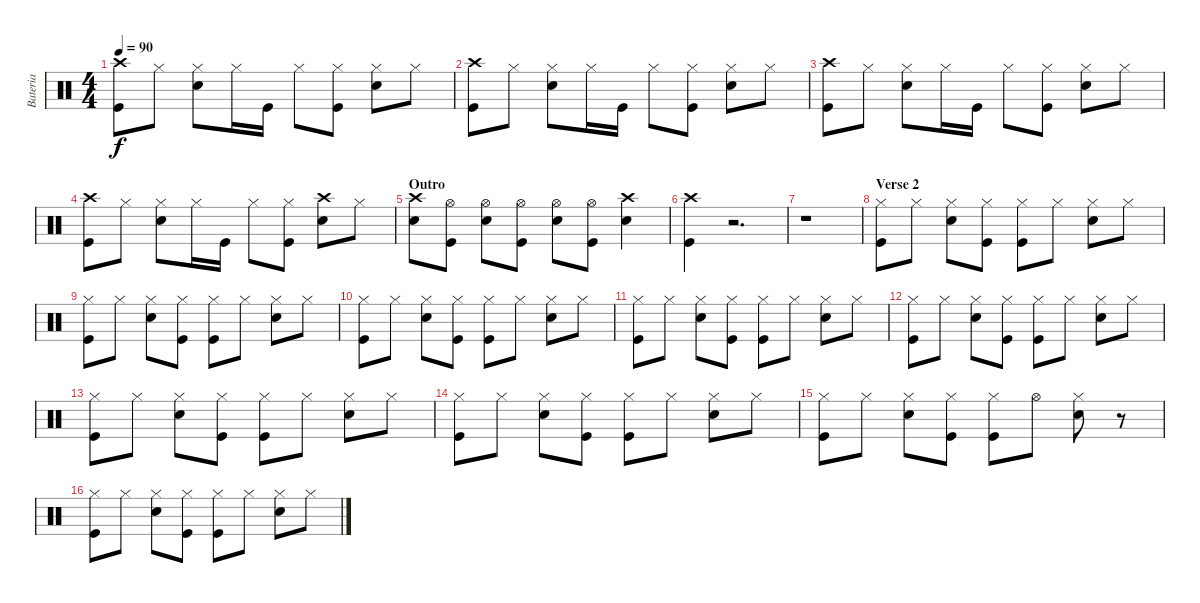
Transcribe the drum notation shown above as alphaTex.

\track ("Bateria" "Bateria") {instrument percussion}
\staff {score}
\articulation defaults
\ts (4 4)
\tempo 90
\clef neutral
\ks c
("Crash high (hit)" "Kick (hit)").8{dy f} "Hi-Hat (closed)".8 ("Hi-Hat (closed)" "Snare (hit) 2").8 "Hi-Hat (closed)".16 "Kick (hit)".16 "Hi-Hat (closed)".8 ("Hi-Hat (closed)" "Kick (hit)").8 ("Hi-Hat (closed)" "Snare (hit) 2").8 "Hi-Hat (closed)".8 |
("Crash high (hit)" "Kick (hit)").8 "Hi-Hat (closed)".8 ("Hi-Hat (closed)" "Snare (hit) 2").8 "Hi-Hat (closed)".16 "Kick (hit)".16 "Hi-Hat (closed)".8 ("Hi-Hat (closed)" "Kick (hit)").8 ("Hi-Hat (closed)" "Snare (hit) 2").8 "Hi-Hat (closed)".8 |
("Crash high (hit)" "Kick (hit)").8 "Hi-Hat (closed)".8 ("Hi-Hat (closed)" "Snare (hit) 2").8 "Hi-Hat (closed)".16 "Kick (hit)".16 "Hi-Hat (closed)".8 ("Hi-Hat (closed)" "Kick (hit)").8 ("Hi-Hat (closed)" "Snare (hit) 2").8 "Hi-Hat (closed)".8 |
("Crash high (hit)" "Kick (hit)").8 "Hi-Hat (closed)".8 ("Hi-Hat (closed)" "Snare (hit) 2").8 "Hi-Hat (closed)".16 "Kick (hit)".16 "Hi-Hat (closed)".8 ("Hi-Hat (closed)" "Kick (hit)").8 ("Crash high (hit)" "Snare (hit) 2").8 "Hi-Hat (closed)".8 |
\section ("" "Outro")
("Crash high (hit)" "Snare (hit) 2").8 ("Hi-Hat (open)" "Kick (hit)").8 ("Hi-Hat (open)" "Snare (hit) 2").8 ("Hi-Hat (open)" "Kick (hit)").8 ("Hi-Hat (open)" "Snare (hit) 2").8 ("Hi-Hat (open)" "Kick (hit)").8 ("Crash high (hit)" "Snare (hit) 2").4 |
("Crash high (hit)" "Kick (hit)").4 r.2{d} |
r.1 |
\section ("" "Verse 2")
("Hi-Hat (closed)" "Kick (hit)").8 "Hi-Hat (closed)".8 ("Hi-Hat (closed)" "Snare (hit) 2").8 ("Hi-Hat (closed)" "Kick (hit)").8 ("Hi-Hat (closed)" "Kick (hit)").8 "Hi-Hat (closed)".8 ("Hi-Hat (closed)" "Snare (hit) 2").8 "Hi-Hat (closed)".8 |
("Hi-Hat (closed)" "Kick (hit)").8 "Hi-Hat (closed)".8 ("Hi-Hat (closed)" "Snare (hit) 2").8 ("Hi-Hat (closed)" "Kick (hit)").8 ("Hi-Hat (closed)" "Kick (hit)").8 "Hi-Hat (closed)".8 ("Hi-Hat (closed)" "Snare (hit) 2").8 "Hi-Hat (closed)".8 |
("Hi-Hat (closed)" "Kick (hit)").8 "Hi-Hat (closed)".8 ("Hi-Hat (closed)" "Snare (hit) 2").8 ("Hi-Hat (closed)" "Kick (hit)").8 ("Hi-Hat (closed)" "Kick (hit)").8 "Hi-Hat (closed)".8 ("Hi-Hat (closed)" "Snare (hit) 2").8 "Hi-Hat (closed)".8 |
("Hi-Hat (closed)" "Kick (hit)").8 "Hi-Hat (closed)".8 ("Hi-Hat (closed)" "Snare (hit) 2").8 ("Hi-Hat (closed)" "Kick (hit)").8 ("Hi-Hat (closed)" "Kick (hit)").8 "Hi-Hat (closed)".8 ("Hi-Hat (closed)" "Snare (hit) 2").8 "Hi-Hat (closed)".8 |
("Hi-Hat (closed)" "Kick (hit)").8 "Hi-Hat (closed)".8 ("Hi-Hat (closed)" "Snare (hit) 2").8 ("Hi-Hat (closed)" "Kick (hit)").8 ("Hi-Hat (closed)" "Kick (hit)").8 "Hi-Hat (closed)".8 ("Hi-Hat (closed)" "Snare (hit) 2").8 "Hi-Hat (closed)".8 |
("Hi-Hat (closed)" "Kick (hit)").8 "Hi-Hat (closed)".8 ("Hi-Hat (closed)" "Snare (hit) 2").8 ("Hi-Hat (closed)" "Kick (hit)").8 ("Hi-Hat (closed)" "Kick (hit)").8 "Hi-Hat (closed)".8 ("Hi-Hat (closed)" "Snare (hit) 2").8 "Hi-Hat (closed)".8 |
("Hi-Hat (closed)" "Kick (hit)").8 "Hi-Hat (closed)".8 ("Hi-Hat (closed)" "Snare (hit) 2").8 ("Hi-Hat (closed)" "Kick (hit)").8 ("Hi-Hat (closed)" "Kick (hit)").8 "Hi-Hat (closed)".8 ("Hi-Hat (closed)" "Snare (hit) 2").8 "Hi-Hat (closed)".8 |
("Hi-Hat (closed)" "Kick (hit)").8 "Hi-Hat (closed)".8 ("Hi-Hat (closed)" "Snare (hit) 2").8 ("Hi-Hat (closed)" "Kick (hit)").8 ("Hi-Hat (closed)" "Kick (hit)").8 "Hi-Hat (open)".8 ("Hi-Hat (closed)" "Snare (hit) 2").8 r.8 |
("Hi-Hat (closed)" "Kick (hit)").8 "Hi-Hat (closed)".8 ("Hi-Hat (closed)" "Snare (hit) 2").8 ("Hi-Hat (closed)" "Kick (hit)").8 ("Hi-Hat (closed)" "Kick (hit)").8 "Hi-Hat (closed)".8 ("Hi-Hat (closed)" "Snare (hit) 2").8 "Hi-Hat (closed)".8
